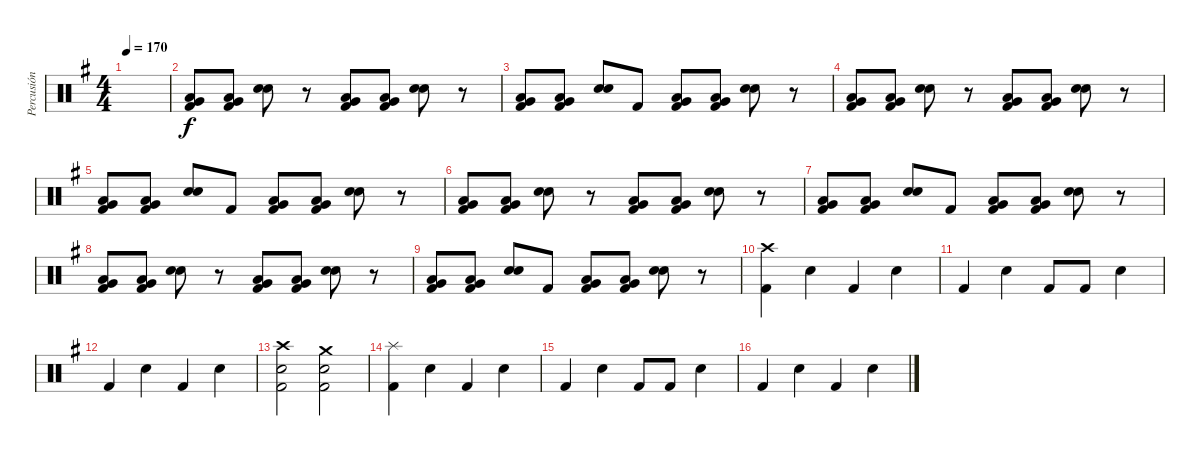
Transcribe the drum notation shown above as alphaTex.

\track ("Percusión" "Percusión") {instrument percussion}
\staff {score}
\articulation defaults
\ts (4 4)
\tempo 170
\clef neutral
\ks g
|
("Low Tom (hit)" "Very Low Tom (hit)" "Kick (hit) 2").8 ("Low Tom (hit)" "Very Low Tom (hit)" "Kick (hit) 2").8 ("Snare (hit) 2" "Snare (hit) 2").8{bd 240} r.8 ("Low Tom (hit)" "Very Low Tom (hit)" "Kick (hit) 2").8 ("Low Tom (hit)" "Very Low Tom (hit)" "Kick (hit) 2").8 ("Snare (hit) 2" "Snare (hit) 2").8{bd 240} r.8 |
("Low Tom (hit)" "Very Low Tom (hit)" "Kick (hit) 2").8 ("Low Tom (hit)" "Very Low Tom (hit)" "Kick (hit) 2").8 ("Snare (hit) 2" "Snare (hit) 2").8{bd 240} "Kick (hit) 2".8 ("Low Tom (hit)" "Very Low Tom (hit)" "Kick (hit) 2").8 ("Low Tom (hit)" "Very Low Tom (hit)" "Kick (hit) 2").8 ("Snare (hit) 2" "Snare (hit) 2").8{bd 240} r.8 |
("Low Tom (hit)" "Very Low Tom (hit)" "Kick (hit) 2").8 ("Low Tom (hit)" "Very Low Tom (hit)" "Kick (hit) 2").8 ("Snare (hit) 2" "Snare (hit) 2").8{bd 240} r.8 ("Low Tom (hit)" "Very Low Tom (hit)" "Kick (hit) 2").8 ("Low Tom (hit)" "Very Low Tom (hit)" "Kick (hit) 2").8 ("Snare (hit) 2" "Snare (hit) 2").8{bd 240} r.8 |
("Low Tom (hit)" "Very Low Tom (hit)" "Kick (hit) 2").8 ("Low Tom (hit)" "Very Low Tom (hit)" "Kick (hit) 2").8 ("Snare (hit) 2" "Snare (hit) 2").8{bd 240} "Kick (hit) 2".8 ("Low Tom (hit)" "Very Low Tom (hit)" "Kick (hit) 2").8 ("Low Tom (hit)" "Very Low Tom (hit)" "Kick (hit) 2").8 ("Snare (hit) 2" "Snare (hit) 2").8{bd 240} r.8 |
("Low Tom (hit)" "Very Low Tom (hit)" "Kick (hit) 2").8 ("Low Tom (hit)" "Very Low Tom (hit)" "Kick (hit) 2").8 ("Snare (hit) 2" "Snare (hit) 2").8{bd 240} r.8 ("Low Tom (hit)" "Very Low Tom (hit)" "Kick (hit) 2").8 ("Low Tom (hit)" "Very Low Tom (hit)" "Kick (hit) 2").8 ("Snare (hit) 2" "Snare (hit) 2").8{bd 240} r.8 |
("Low Tom (hit)" "Very Low Tom (hit)" "Kick (hit) 2").8 ("Low Tom (hit)" "Very Low Tom (hit)" "Kick (hit) 2").8 ("Snare (hit) 2" "Snare (hit) 2").8{bd 240} "Kick (hit) 2".8 ("Low Tom (hit)" "Very Low Tom (hit)" "Kick (hit) 2").8 ("Low Tom (hit)" "Very Low Tom (hit)" "Kick (hit) 2").8 ("Snare (hit) 2" "Snare (hit) 2").8{bd 240} r.8 |
("Low Tom (hit)" "Very Low Tom (hit)" "Kick (hit) 2").8 ("Low Tom (hit)" "Very Low Tom (hit)" "Kick (hit) 2").8 ("Snare (hit) 2" "Snare (hit) 2").8{bd 240} r.8 ("Low Tom (hit)" "Very Low Tom (hit)" "Kick (hit) 2").8 ("Low Tom (hit)" "Very Low Tom (hit)" "Kick (hit) 2").8 ("Snare (hit) 2" "Snare (hit) 2").8{bd 240} r.8 |
("Low Tom (hit)" "Very Low Tom (hit)" "Kick (hit) 2").8 ("Low Tom (hit)" "Very Low Tom (hit)" "Kick (hit) 2").8 ("Snare (hit) 2" "Snare (hit) 2").8{bd 240} "Kick (hit) 2".8 ("Low Tom (hit)" "Very Low Tom (hit)" "Kick (hit) 2").8 ("Low Tom (hit)" "Very Low Tom (hit)" "Kick (hit) 2").8 ("Snare (hit) 2" "Snare (hit) 2").8{bd 240} r.8 |
("Crash high (hit)" "Kick (hit) 2").4 "Snare (hit) 2".4 "Kick (hit) 2".4 "Snare (hit) 2".4 |
"Kick (hit) 2".4 "Snare (hit) 2".4 "Kick (hit) 2".8 "Kick (hit) 2".8 "Snare (hit) 2".4 |
"Kick (hit) 2".4 "Snare (hit) 2".4 "Kick (hit) 2".4 "Snare (hit) 2".4 |
("Crash high (hit)" "Snare (hit) 2" "Kick (hit) 2").2 ("Crash medium (hit)" "Snare (hit) 2" "Kick (hit) 2").2 |
("Splash (hit)" "Kick (hit) 2").4 "Snare (hit) 2".4 "Kick (hit) 2".4 "Snare (hit) 2".4 |
"Kick (hit) 2".4 "Snare (hit) 2".4 "Kick (hit) 2".8 "Kick (hit) 2".8 "Snare (hit) 2".4 |
"Kick (hit) 2".4 "Snare (hit) 2".4 "Kick (hit) 2".4 "Snare (hit) 2".4
